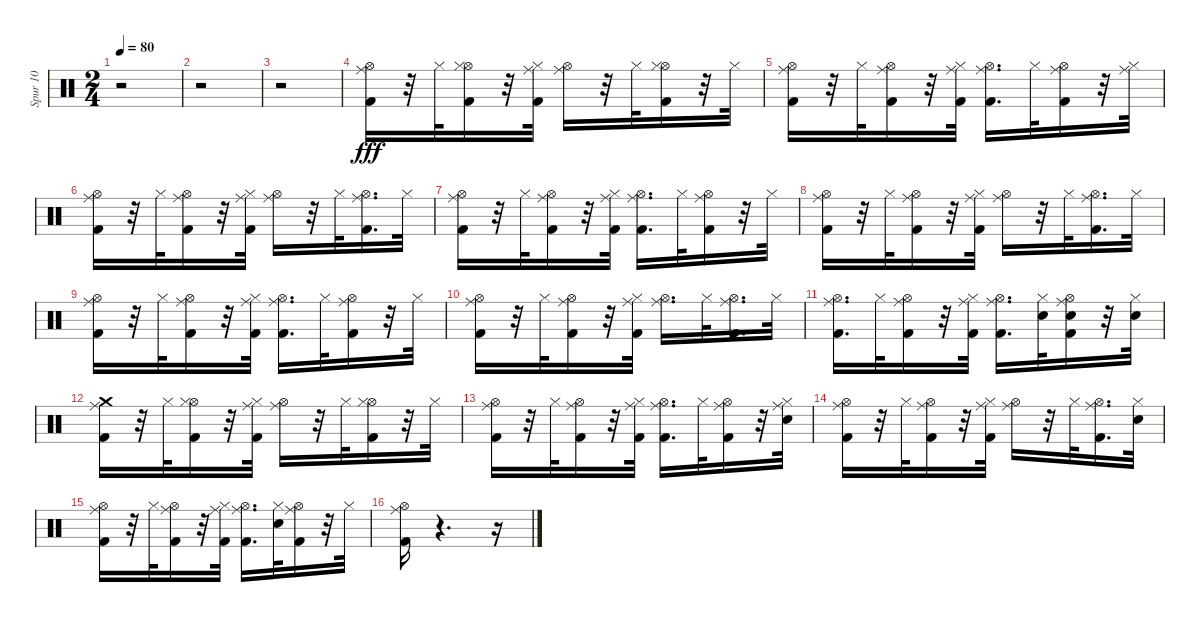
\track ("Spur 10" "Spur 10") {instrument percussion}
\staff {score}
\articulation defaults
\ts (2 4)
\tempo 80
\clef neutral
\ks c
r.2{dy fff} |
r.2 |
r.2 |
("Hi-Hat (open)" "Kick (hit) 2" "Ride (middle)").16 r.32 "Hi-Hat (closed)".32 ("Hi-Hat (open)" "Kick (hit) 2" "Hi-Hat (closed)").16 r.32 ("Hi-Hat (closed)" "Kick (hit) 2" "Ride (middle)").32 ("Hi-Hat (open)" "Ride (middle)").16 r.32 "Hi-Hat (closed)".32 ("Hi-Hat (open)" "Kick (hit) 2" "Hi-Hat (closed)").16 r.32 "Hi-Hat (closed)".32 |
("Hi-Hat (open)" "Kick (hit) 2" "Ride (middle)").16 r.32 "Hi-Hat (closed)".32 ("Hi-Hat (open)" "Kick (hit) 2" "Ride (middle)").16 r.32 ("Hi-Hat (closed)" "Kick (hit) 2" "Ride (middle)").32 ("Hi-Hat (open)" "Kick (hit) 2" "Ride (middle)").16{d} "Hi-Hat (closed)".32 ("Hi-Hat (open)" "Kick (hit) 2" "Ride (middle)").16 r.32 ("Hi-Hat (closed)" "Ride (middle)").32 |
("Hi-Hat (open)" "Kick (hit) 2" "Ride (middle)").16 r.32 "Hi-Hat (closed)".32 ("Hi-Hat (open)" "Kick (hit) 2" "Ride (middle)").16 r.32 ("Hi-Hat (closed)" "Kick (hit) 2" "Ride (middle)").32 ("Hi-Hat (open)" "Ride (middle)").16 r.32 "Hi-Hat (closed)".32 ("Hi-Hat (open)" "Kick (hit) 2" "Ride (middle)").16{d} "Hi-Hat (closed)".32 |
("Hi-Hat (open)" "Kick (hit) 2" "Ride (middle)").16 r.32 "Hi-Hat (closed)".32 ("Hi-Hat (open)" "Kick (hit) 2" "Ride (middle)").16 r.32 ("Hi-Hat (closed)" "Kick (hit) 2" "Ride (middle)").32 ("Hi-Hat (open)" "Kick (hit) 2" "Ride (middle)").16{d} "Hi-Hat (closed)".32 ("Hi-Hat (open)" "Kick (hit) 2" "Ride (middle)").16 r.32 "Hi-Hat (closed)".32 |
("Hi-Hat (open)" "Kick (hit) 2" "Ride (middle)").16 r.32 "Hi-Hat (closed)".32 ("Hi-Hat (open)" "Kick (hit) 2" "Ride (middle)").16 r.32 ("Hi-Hat (closed)" "Kick (hit) 2" "Ride (middle)").32 ("Hi-Hat (open)" "Ride (middle)").16 r.32 "Hi-Hat (closed)".32 ("Hi-Hat (open)" "Kick (hit) 2" "Ride (middle)").16{d} "Hi-Hat (closed)".32 |
("Hi-Hat (open)" "Kick (hit) 2" "Ride (middle)").16 r.32 "Hi-Hat (closed)".32 ("Hi-Hat (open)" "Ride (middle)" "Kick (hit) 2").16 r.32 ("Hi-Hat (closed)" "Ride (middle)" "Kick (hit) 2").32 ("Hi-Hat (open)" "Kick (hit) 2" "Ride (middle)").16{d} "Hi-Hat (closed)".32 ("Hi-Hat (open)" "Kick (hit) 2" "Ride (middle)").16 r.32 "Hi-Hat (closed)".32 |
("Hi-Hat (open)" "Kick (hit) 2" "Ride (middle)").16 r.32 "Hi-Hat (closed)".32 ("Hi-Hat (open)" "Kick (hit) 2" "Ride (middle)").16 r.32 ("Hi-Hat (closed)" "Kick (hit) 2" "Ride (middle)").32 ("Hi-Hat (open)" "Ride (middle)").16{d} "Hi-Hat (closed)".32 ("Hi-Hat (open)" "Kick (hit) 2" "Ride (middle)").16{d} "Hi-Hat (closed)".32 |
("Hi-Hat (open)" "Kick (hit) 2" "Ride (middle)").16{d} "Hi-Hat (closed)".32 ("Hi-Hat (open)" "Kick (hit) 2" "Ride (middle)").16 r.32 ("Hi-Hat (closed)" "Kick (hit) 2" "Ride (middle)").32 ("Hi-Hat (open)" "Kick (hit) 2" "Ride (middle)").16{d} ("Hi-Hat (closed)" "Snare (hit) 2").32 ("Hi-Hat (open)" "Kick (hit) 2" "Snare (hit) 2" "Ride (middle)").16 r.32 ("Hi-Hat (closed)" "Snare (hit) 2").32 |
("Crash medium (hit)" "Kick (hit) 2" "Ride (middle)").16 r.32 "Hi-Hat (closed)".32 ("Hi-Hat (open)" "Kick (hit) 2" "Hi-Hat (closed)").16 r.32 ("Hi-Hat (closed)" "Kick (hit) 2" "Ride (middle)").32 ("Hi-Hat (open)" "Ride (middle)").16 r.32 "Hi-Hat (closed)".32 ("Hi-Hat (open)" "Kick (hit) 2" "Hi-Hat (closed)").16 r.32 "Hi-Hat (closed)".32 |
("Hi-Hat (open)" "Kick (hit) 2" "Ride (middle)").16 r.32 "Hi-Hat (closed)".32 ("Hi-Hat (open)" "Kick (hit) 2" "Ride (middle)").16 r.32 ("Hi-Hat (closed)" "Kick (hit) 2" "Ride (middle)").32 ("Hi-Hat (open)" "Kick (hit) 2" "Ride (middle)").16{d} "Hi-Hat (closed)".32 ("Hi-Hat (open)" "Kick (hit) 2" "Ride (middle)").16 r.32 ("Hi-Hat (closed)" "Ride (middle)" "Snare (hit) 2").32 |
("Hi-Hat (open)" "Kick (hit) 2" "Ride (middle)").16 r.32 "Hi-Hat (closed)".32 ("Hi-Hat (open)" "Kick (hit) 2" "Ride (middle)").16 r.32 ("Hi-Hat (closed)" "Kick (hit) 2" "Ride (middle)").32 ("Hi-Hat (open)" "Ride (middle)").16 r.32 "Hi-Hat (closed)".32 ("Hi-Hat (open)" "Kick (hit) 2" "Ride (middle)").16{d} ("Hi-Hat (closed)" "Snare (hit) 2").32 |
("Hi-Hat (open)" "Kick (hit) 2" "Ride (middle)").16 r.32 "Hi-Hat (closed)".32 ("Hi-Hat (open)" "Kick (hit) 2" "Ride (middle)").16 r.32 ("Hi-Hat (closed)" "Kick (hit) 2" "Ride (middle)").32 ("Hi-Hat (open)" "Kick (hit) 2" "Ride (middle)").16{d} ("Hi-Hat (closed)" "Snare (hit) 2").32 ("Hi-Hat (open)" "Kick (hit) 2" "Ride (middle)").16 r.32 "Hi-Hat (closed)".32 |
("Hi-Hat (open)" "Kick (hit) 2" "Ride (middle)").16 r.4{d} r.16
